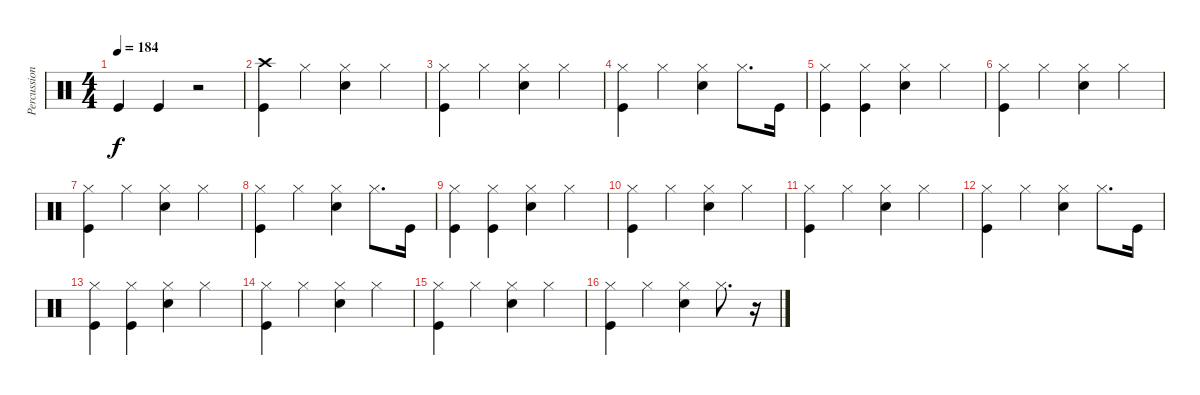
\track ("Percussion" "Percussion") {instrument percussion}
\staff {score}
\articulation defaults
\ts (4 4)
\tempo 184
\clef neutral
\ks c "Kick (hit)".4{dy f} "Kick (hit)".4
r.2 |
("Crash high (hit)" "Kick (hit)").4 "Hi-Hat (closed)".4 ("Hi-Hat (closed)" "Electric Snare (hit)").4 "Hi-Hat (closed)".4 |
("Hi-Hat (closed)" "Kick (hit)").4 "Hi-Hat (closed)".4 ("Hi-Hat (closed)" "Electric Snare (hit)").4 "Hi-Hat (closed)".4 |
("Hi-Hat (closed)" "Kick (hit)").4 "Hi-Hat (closed)".4 ("Hi-Hat (closed)" "Electric Snare (hit)").4 "Hi-Hat (closed)".8{d} "Kick (hit)".16 |
("Hi-Hat (closed)" "Kick (hit)").4 ("Hi-Hat (closed)" "Kick (hit)").4 ("Hi-Hat (closed)" "Electric Snare (hit)").4 "Hi-Hat (closed)".4 |
("Hi-Hat (closed)" "Kick (hit)").4 "Hi-Hat (closed)".4 ("Hi-Hat (closed)" "Electric Snare (hit)").4 "Hi-Hat (closed)".4 |
("Hi-Hat (closed)" "Kick (hit)").4 "Hi-Hat (closed)".4 ("Hi-Hat (closed)" "Electric Snare (hit)").4 "Hi-Hat (closed)".4 |
("Hi-Hat (closed)" "Kick (hit)").4 "Hi-Hat (closed)".4 ("Hi-Hat (closed)" "Electric Snare (hit)").4 "Hi-Hat (closed)".8{d} "Kick (hit)".16 |
("Hi-Hat (closed)" "Kick (hit)").4 ("Hi-Hat (closed)" "Kick (hit)").4 ("Hi-Hat (closed)" "Electric Snare (hit)").4 "Hi-Hat (closed)".4 |
("Hi-Hat (closed)" "Kick (hit)").4 "Hi-Hat (closed)".4 ("Hi-Hat (closed)" "Electric Snare (hit)").4 "Hi-Hat (closed)".4 |
("Hi-Hat (closed)" "Kick (hit)").4 "Hi-Hat (closed)".4 ("Hi-Hat (closed)" "Electric Snare (hit)").4 "Hi-Hat (closed)".4 |
("Hi-Hat (closed)" "Kick (hit)").4 "Hi-Hat (closed)".4 ("Hi-Hat (closed)" "Electric Snare (hit)").4 "Hi-Hat (closed)".8{d} "Kick (hit)".16 |
("Hi-Hat (closed)" "Kick (hit)").4 ("Hi-Hat (closed)" "Kick (hit)").4 ("Hi-Hat (closed)" "Electric Snare (hit)").4 "Hi-Hat (closed)".4 |
("Hi-Hat (closed)" "Kick (hit)").4 "Hi-Hat (closed)".4 ("Hi-Hat (closed)" "Electric Snare (hit)").4 "Hi-Hat (closed)".4 |
("Hi-Hat (closed)" "Kick (hit)").4 "Hi-Hat (closed)".4 ("Hi-Hat (closed)" "Electric Snare (hit)").4 "Hi-Hat (closed)".4 |
("Hi-Hat (closed)" "Kick (hit)").4 "Hi-Hat (closed)".4 ("Hi-Hat (closed)" "Electric Snare (hit)").4 "Hi-Hat (closed)".8{d} r.16
